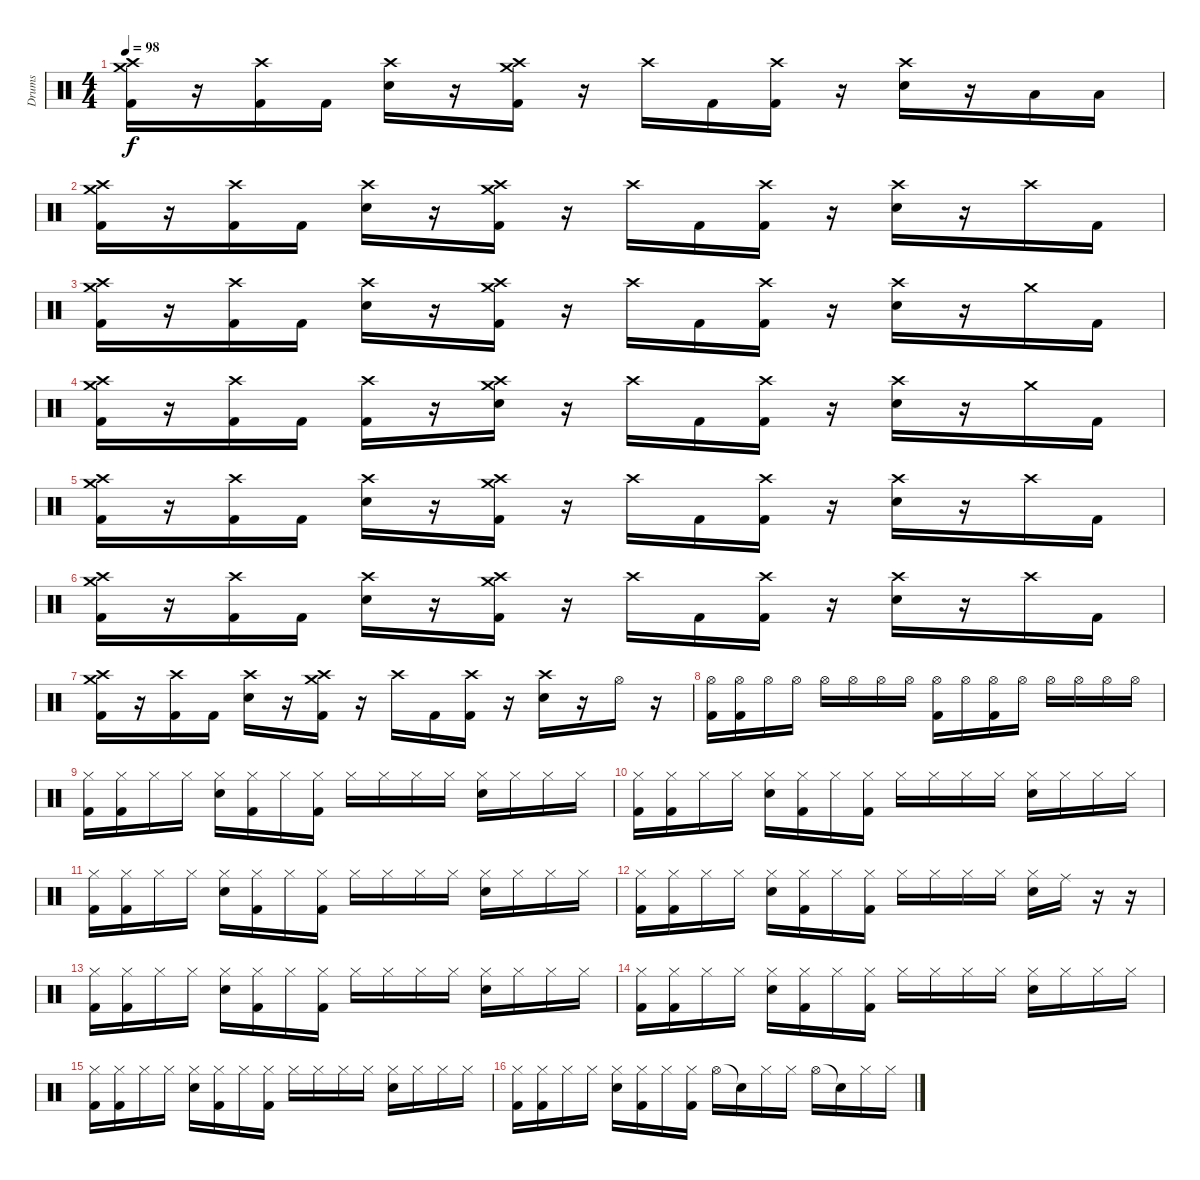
\track ("Drums" "Drums") {instrument percussion}
\staff {score}
\articulation defaults
\ts (4 4)
\tempo 98
\clef neutral
\ks c
("Crash high (hit)" "Crash medium (hit)" "Kick (hit) 2").16{dy f} r.16 ("Crash high (hit)" "Kick (hit) 2").16 "Kick (hit) 2".16 ("Crash high (hit)" "Snare (hit) 2").16 r.16 ("Crash high (hit)" "Crash medium (hit)" "Kick (hit) 2").16 r.16 "Crash high (hit)".16 "Kick (hit) 2".16 ("Crash high (hit)" "Kick (hit) 2").16 r.16 ("Crash high (hit)" "Snare (hit) 2").16 r.16 "Low Tom (hit)".16 "Low Tom (hit)".16 |
("Crash high (hit)" "Crash medium (hit)" "Kick (hit) 2").16 r.16 ("Crash high (hit)" "Kick (hit) 2").16 "Kick (hit) 2".16 ("Crash high (hit)" "Snare (hit) 2").16 r.16 ("Crash high (hit)" "Crash medium (hit)" "Kick (hit) 2").16 r.16 "Crash high (hit)".16 "Kick (hit) 2".16 ("Crash high (hit)" "Kick (hit) 2").16 r.16 ("Crash high (hit)" "Snare (hit) 2").16 r.16 "Crash high (hit)".16 "Kick (hit) 2".16 |
("Crash high (hit)" "Crash medium (hit)" "Kick (hit) 2").16 r.16 ("Crash high (hit)" "Kick (hit) 2").16 "Kick (hit) 2".16 ("Crash high (hit)" "Snare (hit) 2").16 r.16 ("Crash high (hit)" "Crash medium (hit)" "Kick (hit) 2").16 r.16 "Crash high (hit)".16 "Kick (hit) 2".16 ("Crash high (hit)" "Kick (hit) 2").16 r.16 ("Crash high (hit)" "Snare (hit) 2").16 r.16 "Crash medium (hit)".16 "Kick (hit) 2".16 |
("Crash high (hit)" "Crash medium (hit)" "Kick (hit) 2").16 r.16 ("Crash high (hit)" "Kick (hit) 2").16 "Kick (hit) 2".16 ("Crash high (hit)" "Kick (hit) 2").16 r.16 ("Crash high (hit)" "Crash medium (hit)" "Snare (hit) 2").16 r.16 "Crash high (hit)".16 "Kick (hit) 2".16 ("Crash high (hit)" "Kick (hit) 2").16 r.16 ("Crash high (hit)" "Snare (hit) 2").16 r.16 "Crash medium (hit)".16 "Kick (hit) 2".16 |
("Crash high (hit)" "Crash medium (hit)" "Kick (hit) 2").16 r.16 ("Crash high (hit)" "Kick (hit) 2").16 "Kick (hit) 2".16 ("Crash high (hit)" "Snare (hit) 2").16 r.16 ("Crash high (hit)" "Crash medium (hit)" "Kick (hit) 2").16 r.16 "Crash high (hit)".16 "Kick (hit) 2".16 ("Crash high (hit)" "Kick (hit) 2").16 r.16 ("Crash high (hit)" "Snare (hit) 2").16 r.16 "Crash high (hit)".16 "Kick (hit) 2".16 |
("Crash high (hit)" "Crash medium (hit)" "Kick (hit) 2").16 r.16 ("Crash high (hit)" "Kick (hit) 2").16 "Kick (hit) 2".16 ("Crash high (hit)" "Snare (hit) 2").16 r.16 ("Crash high (hit)" "Crash medium (hit)" "Kick (hit) 2").16 r.16 "Crash high (hit)".16 "Kick (hit) 2".16 ("Crash high (hit)" "Kick (hit) 2").16 r.16 ("Crash high (hit)" "Snare (hit) 2").16 r.16 "Crash high (hit)".16 "Kick (hit) 2".16 |
("Crash high (hit)" "Crash medium (hit)" "Kick (hit) 2").16 r.16 ("Crash high (hit)" "Kick (hit) 2").16 "Kick (hit) 2".16 ("Crash high (hit)" "Snare (hit) 2").16 r.16 ("Crash high (hit)" "Crash medium (hit)" "Kick (hit) 2").16 r.16 "Crash high (hit)".16 "Kick (hit) 2".16 ("Crash high (hit)" "Kick (hit) 2").16 r.16 ("Crash high (hit)" "Snare (hit) 2").16 r.16 "Hi-Hat (open)".16 r.16 |
("Hi-Hat (open)" "Kick (hit) 2").16 ("Hi-Hat (open)" "Kick (hit) 2").16 "Hi-Hat (open)".16 "Hi-Hat (open)".16 "Hi-Hat (open)".16 "Hi-Hat (open)".16 "Hi-Hat (open)".16 "Hi-Hat (open)".16 ("Hi-Hat (open)" "Kick (hit) 2").16 "Hi-Hat (open)".16 ("Hi-Hat (open)" "Kick (hit) 2").16 "Hi-Hat (open)".16 "Hi-Hat (open)".16 "Hi-Hat (open)".16 "Hi-Hat (open)".16 "Hi-Hat (open)".16 |
("Hi-Hat (closed)" "Kick (hit) 2").16 ("Hi-Hat (closed)" "Kick (hit) 2").16 "Hi-Hat (closed)".16 "Hi-Hat (closed)".16 ("Hi-Hat (closed)" "Snare (hit) 2").16 ("Hi-Hat (closed)" "Kick (hit) 2").16 "Hi-Hat (closed)".16 ("Hi-Hat (closed)" "Kick (hit) 2").16 "Hi-Hat (closed)".16 "Hi-Hat (closed)".16 "Hi-Hat (closed)".16 "Hi-Hat (closed)".16 ("Hi-Hat (closed)" "Snare (hit) 2").16 "Hi-Hat (closed)".16 "Hi-Hat (closed)".16 "Hi-Hat (closed)".16 |
("Hi-Hat (closed)" "Kick (hit) 2").16 ("Hi-Hat (closed)" "Kick (hit) 2").16 "Hi-Hat (closed)".16 "Hi-Hat (closed)".16 ("Hi-Hat (closed)" "Snare (hit) 2").16 ("Hi-Hat (closed)" "Kick (hit) 2").16 "Hi-Hat (closed)".16 ("Hi-Hat (closed)" "Kick (hit) 2").16 "Hi-Hat (closed)".16 "Hi-Hat (closed)".16 "Hi-Hat (closed)".16 "Hi-Hat (closed)".16 ("Hi-Hat (closed)" "Snare (hit) 2").16 "Hi-Hat (closed)".16 "Hi-Hat (closed)".16 "Hi-Hat (closed)".16 |
("Hi-Hat (closed)" "Kick (hit) 2").16 ("Hi-Hat (closed)" "Kick (hit) 2").16 "Hi-Hat (closed)".16 "Hi-Hat (closed)".16 ("Hi-Hat (closed)" "Snare (hit) 2").16 ("Hi-Hat (closed)" "Kick (hit) 2").16 "Hi-Hat (closed)".16 ("Hi-Hat (closed)" "Kick (hit) 2").16 "Hi-Hat (closed)".16 "Hi-Hat (closed)".16 "Hi-Hat (closed)".16 "Hi-Hat (closed)".16 ("Hi-Hat (closed)" "Snare (hit) 2").16 "Hi-Hat (closed)".16 "Hi-Hat (closed)".16 "Hi-Hat (closed)".16 |
("Hi-Hat (closed)" "Kick (hit) 2").16 ("Hi-Hat (closed)" "Kick (hit) 2").16 "Hi-Hat (closed)".16 "Hi-Hat (closed)".16 ("Hi-Hat (closed)" "Snare (hit) 2").16 ("Hi-Hat (closed)" "Kick (hit) 2").16 "Hi-Hat (closed)".16 ("Hi-Hat (closed)" "Kick (hit) 2").16 "Hi-Hat (closed)".16 "Hi-Hat (closed)".16 "Hi-Hat (closed)".16 "Hi-Hat (closed)".16 ("Hi-Hat (closed)" "Snare (hit) 2").16 "Ride (middle)".16 r.16 r.16 |
("Hi-Hat (closed)" "Kick (hit) 2").16 ("Hi-Hat (closed)" "Kick (hit) 2").16 "Hi-Hat (closed)".16 "Hi-Hat (closed)".16 ("Hi-Hat (closed)" "Snare (hit) 2").16 ("Hi-Hat (closed)" "Kick (hit) 2").16 "Hi-Hat (closed)".16 ("Hi-Hat (closed)" "Kick (hit) 2").16 "Hi-Hat (closed)".16 "Hi-Hat (closed)".16 "Hi-Hat (closed)".16 "Hi-Hat (closed)".16 ("Hi-Hat (closed)" "Snare (hit) 2").16 "Hi-Hat (closed)".16 "Hi-Hat (closed)".16 "Hi-Hat (closed)".16 |
("Hi-Hat (closed)" "Kick (hit) 2").16 ("Hi-Hat (closed)" "Kick (hit) 2").16 "Hi-Hat (closed)".16 "Hi-Hat (closed)".16 ("Hi-Hat (closed)" "Snare (hit) 2").16 ("Hi-Hat (closed)" "Kick (hit) 2").16 "Hi-Hat (closed)".16 ("Hi-Hat (closed)" "Kick (hit) 2").16 "Hi-Hat (closed)".16 "Hi-Hat (closed)".16 "Hi-Hat (closed)".16 "Hi-Hat (closed)".16 ("Hi-Hat (closed)" "Snare (hit) 2").16 "Hi-Hat (closed)".16 "Hi-Hat (closed)".16 "Hi-Hat (closed)".16 |
("Hi-Hat (closed)" "Kick (hit) 2").16 ("Hi-Hat (closed)" "Kick (hit) 2").16 "Hi-Hat (closed)".16 "Hi-Hat (closed)".16 ("Hi-Hat (closed)" "Snare (hit) 2").16 ("Hi-Hat (closed)" "Kick (hit) 2").16 "Hi-Hat (closed)".16 ("Hi-Hat (closed)" "Kick (hit) 2").16 "Hi-Hat (closed)".16 "Hi-Hat (closed)".16 "Hi-Hat (closed)".16 "Hi-Hat (closed)".16 ("Hi-Hat (closed)" "Snare (hit) 2").16 "Hi-Hat (closed)".16 "Hi-Hat (closed)".16 "Hi-Hat (closed)".16 |
("Hi-Hat (closed)" "Kick (hit) 2").16 ("Hi-Hat (closed)" "Kick (hit) 2").16 "Hi-Hat (closed)".16 "Hi-Hat (closed)".16 ("Hi-Hat (closed)" "Snare (hit) 2").16 ("Hi-Hat (closed)" "Kick (hit) 2").16 "Hi-Hat (closed)".16 ("Hi-Hat (closed)" "Kick (hit) 2").16 "Hi-Hat (open)".16 "Snare (hit)"{t}.16 "Hi-Hat (closed)".16 "Hi-Hat (closed)".16 "Hi-Hat (open)".16 "Snare (hit)"{t}.16 "Hi-Hat (closed)".16 "Hi-Hat (closed)".16
